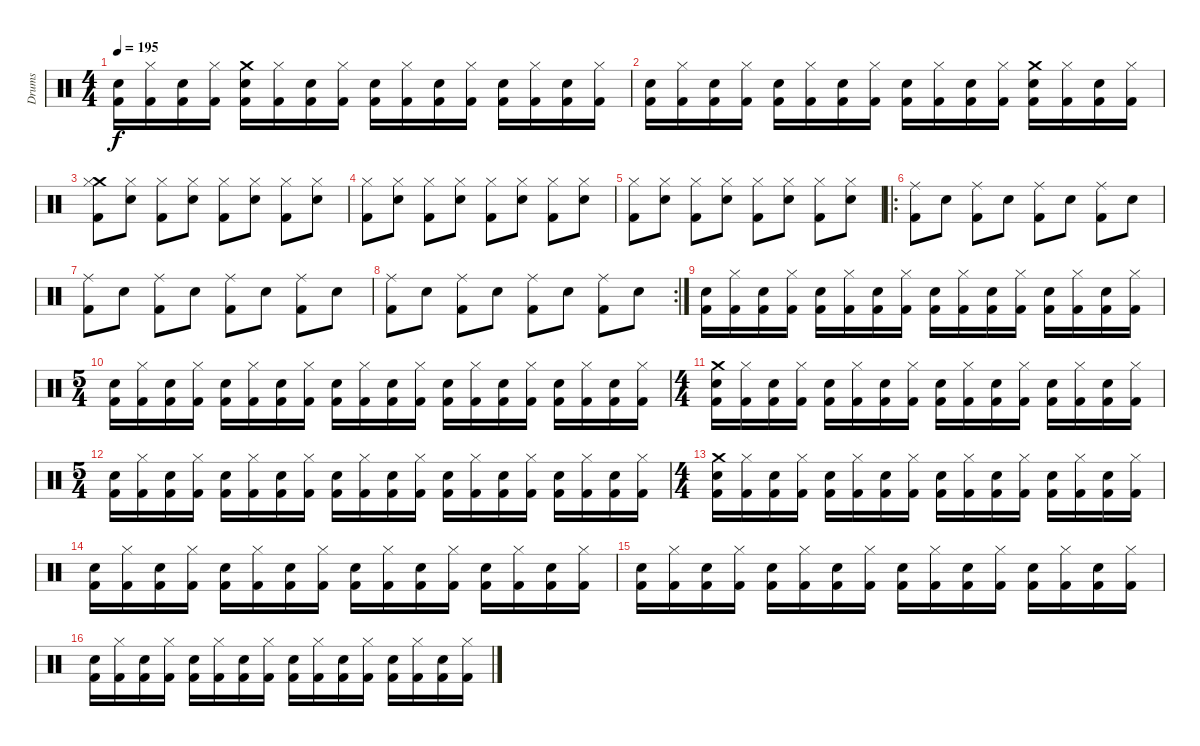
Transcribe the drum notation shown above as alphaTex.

\track ("Drums" "Drums") {instrument percussion}
\staff {score}
\articulation defaults
\ts (4 4)
\tempo 195
\clef neutral
\ks c
("Kick (hit) 2" "Snare (hit) 2").16{dy f} ("Hi-Hat (closed)" "Kick (hit) 2").16 ("Kick (hit) 2" "Snare (hit) 2").16 ("Hi-Hat (closed)" "Kick (hit) 2").16 ("Crash medium (hit)" "Kick (hit) 2" "Snare (hit) 2").16 ("Hi-Hat (closed)" "Kick (hit) 2").16 ("Kick (hit) 2" "Snare (hit) 2").16 ("Hi-Hat (closed)" "Kick (hit) 2").16 ("Kick (hit) 2" "Snare (hit) 2").16 ("Hi-Hat (closed)" "Kick (hit) 2").16 ("Kick (hit) 2" "Snare (hit) 2").16 ("Hi-Hat (closed)" "Kick (hit) 2").16 ("Kick (hit) 2" "Snare (hit) 2").16 ("Hi-Hat (closed)" "Kick (hit) 2").16 ("Kick (hit) 2" "Snare (hit) 2").16 ("Hi-Hat (closed)" "Kick (hit) 2").16 |
("Kick (hit) 2" "Snare (hit) 2").16 ("Hi-Hat (closed)" "Kick (hit) 2").16 ("Kick (hit) 2" "Snare (hit) 2").16 ("Hi-Hat (closed)" "Kick (hit) 2").16 ("Kick (hit) 2" "Snare (hit) 2").16 ("Hi-Hat (closed)" "Kick (hit) 2").16 ("Kick (hit) 2" "Snare (hit) 2").16 ("Hi-Hat (closed)" "Kick (hit) 2").16 ("Kick (hit) 2" "Snare (hit) 2").16 ("Hi-Hat (closed)" "Kick (hit) 2").16 ("Kick (hit) 2" "Snare (hit) 2").16 ("Hi-Hat (closed)" "Kick (hit) 2").16 ("Crash medium (hit)" "Kick (hit) 2" "Snare (hit) 2").16 ("Hi-Hat (closed)" "Kick (hit) 2").16 ("Kick (hit) 2" "Snare (hit) 2").16 ("Hi-Hat (closed)" "Kick (hit) 2").16 |
("Crash medium (hit)" "Hi-Hat (closed)" "Kick (hit) 2").8 ("Hi-Hat (closed)" "Snare (hit) 2").8 ("Hi-Hat (closed)" "Kick (hit) 2").8 ("Hi-Hat (closed)" "Snare (hit) 2").8 ("Hi-Hat (closed)" "Kick (hit) 2").8 ("Hi-Hat (closed)" "Snare (hit) 2").8 ("Hi-Hat (closed)" "Kick (hit) 2").8 ("Hi-Hat (closed)" "Snare (hit) 2").8 |
("Hi-Hat (closed)" "Kick (hit) 2").8 ("Hi-Hat (closed)" "Snare (hit) 2").8 ("Hi-Hat (closed)" "Kick (hit) 2").8 ("Hi-Hat (closed)" "Snare (hit) 2").8 ("Hi-Hat (closed)" "Kick (hit) 2").8 ("Hi-Hat (closed)" "Snare (hit) 2").8 ("Hi-Hat (closed)" "Kick (hit) 2").8 ("Hi-Hat (closed)" "Snare (hit) 2").8 |
("Hi-Hat (closed)" "Kick (hit) 2").8 ("Hi-Hat (closed)" "Snare (hit) 2").8 ("Hi-Hat (closed)" "Kick (hit) 2").8 ("Hi-Hat (closed)" "Snare (hit) 2").8 ("Hi-Hat (closed)" "Kick (hit) 2").8 ("Hi-Hat (closed)" "Snare (hit) 2").8 ("Hi-Hat (closed)" "Kick (hit) 2").8 ("Hi-Hat (closed)" "Snare (hit) 2").8 |
\ro
("Ride (middle)" "Kick (hit) 2").8 "Snare (hit) 2".8 ("Ride (middle)" "Kick (hit) 2").8 "Snare (hit) 2".8 ("Ride (middle)" "Kick (hit) 2").8 "Snare (hit) 2".8 ("Ride (middle)" "Kick (hit) 2").8 "Snare (hit) 2".8 |
("Ride (middle)" "Kick (hit) 2").8 "Snare (hit) 2".8 ("Ride (middle)" "Kick (hit) 2").8 "Snare (hit) 2".8 ("Ride (middle)" "Kick (hit) 2").8 "Snare (hit) 2".8 ("Ride (middle)" "Kick (hit) 2").8 "Snare (hit) 2".8 |
\rc 2
("Ride (middle)" "Kick (hit) 2").8 "Snare (hit) 2".8 ("Ride (middle)" "Kick (hit) 2").8 "Snare (hit) 2".8 ("Ride (middle)" "Kick (hit) 2").8 "Snare (hit) 2".8 ("Ride (middle)" "Kick (hit) 2").8 "Snare (hit) 2".8 |
("Kick (hit) 2" "Snare (hit) 2").16 ("Hi-Hat (closed)" "Kick (hit) 2").16 ("Kick (hit) 2" "Snare (hit) 2").16 ("Hi-Hat (closed)" "Kick (hit) 2").16 ("Kick (hit) 2" "Snare (hit) 2").16 ("Hi-Hat (closed)" "Kick (hit) 2").16 ("Kick (hit) 2" "Snare (hit) 2").16 ("Hi-Hat (closed)" "Kick (hit) 2").16 ("Kick (hit) 2" "Snare (hit) 2").16 ("Hi-Hat (closed)" "Kick (hit) 2").16 ("Kick (hit) 2" "Snare (hit) 2").16 ("Hi-Hat (closed)" "Kick (hit) 2").16 ("Kick (hit) 2" "Snare (hit) 2").16 ("Hi-Hat (closed)" "Kick (hit) 2").16 ("Kick (hit) 2" "Snare (hit) 2").16 ("Hi-Hat (closed)" "Kick (hit) 2").16 |
\ts (5 4)
("Kick (hit) 2" "Snare (hit) 2").16 ("Hi-Hat (closed)" "Kick (hit) 2").16 ("Kick (hit) 2" "Snare (hit) 2").16 ("Hi-Hat (closed)" "Kick (hit) 2").16 ("Kick (hit) 2" "Snare (hit) 2").16 ("Hi-Hat (closed)" "Kick (hit) 2").16 ("Kick (hit) 2" "Snare (hit) 2").16 ("Hi-Hat (closed)" "Kick (hit) 2").16 ("Kick (hit) 2" "Snare (hit) 2").16 ("Hi-Hat (closed)" "Kick (hit) 2").16 ("Kick (hit) 2" "Snare (hit) 2").16 ("Hi-Hat (closed)" "Kick (hit) 2").16 ("Kick (hit) 2" "Snare (hit) 2").16 ("Hi-Hat (closed)" "Kick (hit) 2").16 ("Kick (hit) 2" "Snare (hit) 2").16 ("Hi-Hat (closed)" "Kick (hit) 2").16 ("Kick (hit) 2" "Snare (hit) 2").16 ("Hi-Hat (closed)" "Kick (hit) 2").16 ("Kick (hit) 2" "Snare (hit) 2").16 ("Hi-Hat (closed)" "Kick (hit) 2").16 |
\ts (4 4)
("Crash medium (hit)" "Kick (hit) 2" "Snare (hit) 2").16 ("Hi-Hat (closed)" "Kick (hit) 2").16 ("Kick (hit) 2" "Snare (hit) 2").16 ("Hi-Hat (closed)" "Kick (hit) 2").16 ("Kick (hit) 2" "Snare (hit) 2").16 ("Hi-Hat (closed)" "Kick (hit) 2").16 ("Kick (hit) 2" "Snare (hit) 2").16 ("Hi-Hat (closed)" "Kick (hit) 2").16 ("Kick (hit) 2" "Snare (hit) 2").16 ("Hi-Hat (closed)" "Kick (hit) 2").16 ("Kick (hit) 2" "Snare (hit) 2").16 ("Hi-Hat (closed)" "Kick (hit) 2").16 ("Kick (hit) 2" "Snare (hit) 2").16 ("Hi-Hat (closed)" "Kick (hit) 2").16 ("Kick (hit) 2" "Snare (hit) 2").16 ("Hi-Hat (closed)" "Kick (hit) 2").16 |
\ts (5 4)
("Kick (hit) 2" "Snare (hit) 2").16 ("Hi-Hat (closed)" "Kick (hit) 2").16 ("Kick (hit) 2" "Snare (hit) 2").16 ("Hi-Hat (closed)" "Kick (hit) 2").16 ("Kick (hit) 2" "Snare (hit) 2").16 ("Hi-Hat (closed)" "Kick (hit) 2").16 ("Kick (hit) 2" "Snare (hit) 2").16 ("Hi-Hat (closed)" "Kick (hit) 2").16 ("Kick (hit) 2" "Snare (hit) 2").16 ("Hi-Hat (closed)" "Kick (hit) 2").16 ("Kick (hit) 2" "Snare (hit) 2").16 ("Hi-Hat (closed)" "Kick (hit) 2").16 ("Kick (hit) 2" "Snare (hit) 2").16 ("Hi-Hat (closed)" "Kick (hit) 2").16 ("Kick (hit) 2" "Snare (hit) 2").16 ("Hi-Hat (closed)" "Kick (hit) 2").16 ("Kick (hit) 2" "Snare (hit) 2").16 ("Hi-Hat (closed)" "Kick (hit) 2").16 ("Kick (hit) 2" "Snare (hit) 2").16 ("Hi-Hat (closed)" "Kick (hit) 2").16 |
\ts (4 4)
("Crash medium (hit)" "Kick (hit) 2" "Snare (hit) 2").16 ("Hi-Hat (closed)" "Kick (hit) 2").16 ("Kick (hit) 2" "Snare (hit) 2").16 ("Hi-Hat (closed)" "Kick (hit) 2").16 ("Kick (hit) 2" "Snare (hit) 2").16 ("Hi-Hat (closed)" "Kick (hit) 2").16 ("Kick (hit) 2" "Snare (hit) 2").16 ("Hi-Hat (closed)" "Kick (hit) 2").16 ("Kick (hit) 2" "Snare (hit) 2").16 ("Hi-Hat (closed)" "Kick (hit) 2").16 ("Kick (hit) 2" "Snare (hit) 2").16 ("Hi-Hat (closed)" "Kick (hit) 2").16 ("Kick (hit) 2" "Snare (hit) 2").16 ("Hi-Hat (closed)" "Kick (hit) 2").16 ("Kick (hit) 2" "Snare (hit) 2").16 ("Hi-Hat (closed)" "Kick (hit) 2").16 |
("Kick (hit) 2" "Snare (hit) 2").16 ("Hi-Hat (closed)" "Kick (hit) 2").16 ("Kick (hit) 2" "Snare (hit) 2").16 ("Hi-Hat (closed)" "Kick (hit) 2").16 ("Kick (hit) 2" "Snare (hit) 2").16 ("Hi-Hat (closed)" "Kick (hit) 2").16 ("Kick (hit) 2" "Snare (hit) 2").16 ("Hi-Hat (closed)" "Kick (hit) 2").16 ("Kick (hit) 2" "Snare (hit) 2").16 ("Hi-Hat (closed)" "Kick (hit) 2").16 ("Kick (hit) 2" "Snare (hit) 2").16 ("Hi-Hat (closed)" "Kick (hit) 2").16 ("Kick (hit) 2" "Snare (hit) 2").16 ("Hi-Hat (closed)" "Kick (hit) 2").16 ("Kick (hit) 2" "Snare (hit) 2").16 ("Hi-Hat (closed)" "Kick (hit) 2").16 |
("Kick (hit) 2" "Snare (hit) 2").16 ("Hi-Hat (closed)" "Kick (hit) 2").16 ("Kick (hit) 2" "Snare (hit) 2").16 ("Hi-Hat (closed)" "Kick (hit) 2").16 ("Kick (hit) 2" "Snare (hit) 2").16 ("Hi-Hat (closed)" "Kick (hit) 2").16 ("Kick (hit) 2" "Snare (hit) 2").16 ("Hi-Hat (closed)" "Kick (hit) 2").16 ("Kick (hit) 2" "Snare (hit) 2").16 ("Hi-Hat (closed)" "Kick (hit) 2").16 ("Kick (hit) 2" "Snare (hit) 2").16 ("Hi-Hat (closed)" "Kick (hit) 2").16 ("Kick (hit) 2" "Snare (hit) 2").16 ("Hi-Hat (closed)" "Kick (hit) 2").16 ("Kick (hit) 2" "Snare (hit) 2").16 ("Hi-Hat (closed)" "Kick (hit) 2").16 |
("Kick (hit) 2" "Snare (hit) 2").16 ("Hi-Hat (closed)" "Kick (hit) 2").16 ("Kick (hit) 2" "Snare (hit) 2").16 ("Hi-Hat (closed)" "Kick (hit) 2").16 ("Kick (hit) 2" "Snare (hit) 2").16 ("Hi-Hat (closed)" "Kick (hit) 2").16 ("Kick (hit) 2" "Snare (hit) 2").16 ("Hi-Hat (closed)" "Kick (hit) 2").16 ("Kick (hit) 2" "Snare (hit) 2").16 ("Hi-Hat (closed)" "Kick (hit) 2").16 ("Kick (hit) 2" "Snare (hit) 2").16 ("Hi-Hat (closed)" "Kick (hit) 2").16 ("Kick (hit) 2" "Snare (hit) 2").16 ("Hi-Hat (closed)" "Kick (hit) 2").16 ("Kick (hit) 2" "Snare (hit) 2").16 ("Hi-Hat (closed)" "Kick (hit) 2").16
